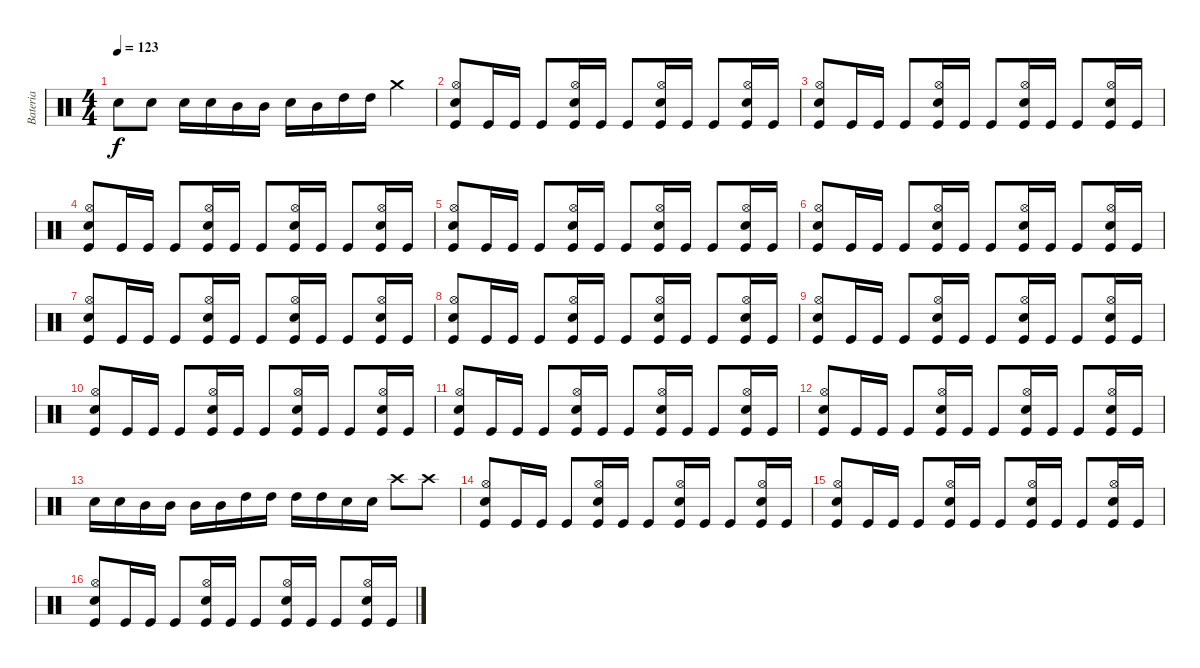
\track ("Bateria" "Bateria") {instrument percussion}
\staff {score}
\articulation defaults
\ts (4 4)
\tempo 123
\clef neutral
\ks c "Snare (hit) 2".8{dy f} "Snare (hit) 2".8 "Snare (hit) 2".16 "Snare (hit) 2".16 "Mid Tom (hit)".16 "Mid Tom (hit)".16 "Snare (hit) 2".16 "Mid Tom (hit)".16 "High Tom (hit)".16 "High Tom (hit)".16 "Crash medium (hit)".4
|
("Hi-Hat (open)" "Snare (hit) 2" "Kick (hit)").8 "Kick (hit)".16 "Kick (hit)".16 "Kick (hit)".8 ("Hi-Hat (open)" "Snare (hit) 2" "Kick (hit)").16 "Kick (hit)".16 "Kick (hit)".8 ("Hi-Hat (open)" "Snare (hit) 2" "Kick (hit)").16 "Kick (hit)".16 "Kick (hit)".8 ("Hi-Hat (open)" "Snare (hit) 2" "Kick (hit)").16 "Kick (hit)".16 |
("Hi-Hat (open)" "Snare (hit) 2" "Kick (hit)").8 "Kick (hit)".16 "Kick (hit)".16 "Kick (hit)".8 ("Hi-Hat (open)" "Snare (hit) 2" "Kick (hit)").16 "Kick (hit)".16 "Kick (hit)".8 ("Hi-Hat (open)" "Snare (hit) 2" "Kick (hit)").16 "Kick (hit)".16 "Kick (hit)".8 ("Hi-Hat (open)" "Snare (hit) 2" "Kick (hit)").16 "Kick (hit)".16 |
("Hi-Hat (open)" "Snare (hit) 2" "Kick (hit)").8 "Kick (hit)".16 "Kick (hit)".16 "Kick (hit)".8 ("Hi-Hat (open)" "Snare (hit) 2" "Kick (hit)").16 "Kick (hit)".16 "Kick (hit)".8 ("Hi-Hat (open)" "Snare (hit) 2" "Kick (hit)").16 "Kick (hit)".16 "Kick (hit)".8 ("Hi-Hat (open)" "Snare (hit) 2" "Kick (hit)").16 "Kick (hit)".16 |
("Hi-Hat (open)" "Snare (hit) 2" "Kick (hit)").8 "Kick (hit)".16 "Kick (hit)".16 "Kick (hit)".8 ("Hi-Hat (open)" "Snare (hit) 2" "Kick (hit)").16 "Kick (hit)".16 "Kick (hit)".8 ("Hi-Hat (open)" "Snare (hit) 2" "Kick (hit)").16 "Kick (hit)".16 "Kick (hit)".8 ("Hi-Hat (open)" "Snare (hit) 2" "Kick (hit)").16 "Kick (hit)".16 |
("Hi-Hat (open)" "Snare (hit) 2" "Kick (hit)").8 "Kick (hit)".16 "Kick (hit)".16 "Kick (hit)".8 ("Hi-Hat (open)" "Snare (hit) 2" "Kick (hit)").16 "Kick (hit)".16 "Kick (hit)".8 ("Hi-Hat (open)" "Snare (hit) 2" "Kick (hit)").16 "Kick (hit)".16 "Kick (hit)".8 ("Hi-Hat (open)" "Snare (hit) 2" "Kick (hit)").16 "Kick (hit)".16 |
("Hi-Hat (open)" "Snare (hit) 2" "Kick (hit)").8 "Kick (hit)".16 "Kick (hit)".16 "Kick (hit)".8 ("Hi-Hat (open)" "Snare (hit) 2" "Kick (hit)").16 "Kick (hit)".16 "Kick (hit)".8 ("Hi-Hat (open)" "Snare (hit) 2" "Kick (hit)").16 "Kick (hit)".16 "Kick (hit)".8 ("Hi-Hat (open)" "Snare (hit) 2" "Kick (hit)").16 "Kick (hit)".16 |
("Hi-Hat (open)" "Snare (hit) 2" "Kick (hit)").8 "Kick (hit)".16 "Kick (hit)".16 "Kick (hit)".8 ("Hi-Hat (open)" "Snare (hit) 2" "Kick (hit)").16 "Kick (hit)".16 "Kick (hit)".8 ("Hi-Hat (open)" "Snare (hit) 2" "Kick (hit)").16 "Kick (hit)".16 "Kick (hit)".8 ("Hi-Hat (open)" "Snare (hit) 2" "Kick (hit)").16 "Kick (hit)".16 |
("Hi-Hat (open)" "Snare (hit) 2" "Kick (hit)").8 "Kick (hit)".16 "Kick (hit)".16 "Kick (hit)".8 ("Hi-Hat (open)" "Snare (hit) 2" "Kick (hit)").16 "Kick (hit)".16 "Kick (hit)".8 ("Hi-Hat (open)" "Snare (hit) 2" "Kick (hit)").16 "Kick (hit)".16 "Kick (hit)".8 ("Hi-Hat (open)" "Snare (hit) 2" "Kick (hit)").16 "Kick (hit)".16 |
("Hi-Hat (open)" "Snare (hit) 2" "Kick (hit)").8 "Kick (hit)".16 "Kick (hit)".16 "Kick (hit)".8 ("Hi-Hat (open)" "Snare (hit) 2" "Kick (hit)").16 "Kick (hit)".16 "Kick (hit)".8 ("Hi-Hat (open)" "Snare (hit) 2" "Kick (hit)").16 "Kick (hit)".16 "Kick (hit)".8 ("Hi-Hat (open)" "Snare (hit) 2" "Kick (hit)").16 "Kick (hit)".16 |
("Hi-Hat (open)" "Snare (hit) 2" "Kick (hit)").8 "Kick (hit)".16 "Kick (hit)".16 "Kick (hit)".8 ("Hi-Hat (open)" "Snare (hit) 2" "Kick (hit)").16 "Kick (hit)".16 "Kick (hit)".8 ("Hi-Hat (open)" "Snare (hit) 2" "Kick (hit)").16 "Kick (hit)".16 "Kick (hit)".8 ("Hi-Hat (open)" "Snare (hit) 2" "Kick (hit)").16 "Kick (hit)".16 |
("Hi-Hat (open)" "Snare (hit) 2" "Kick (hit)").8 "Kick (hit)".16 "Kick (hit)".16 "Kick (hit)".8 ("Hi-Hat (open)" "Snare (hit) 2" "Kick (hit)").16 "Kick (hit)".16 "Kick (hit)".8 ("Hi-Hat (open)" "Snare (hit) 2" "Kick (hit)").16 "Kick (hit)".16 "Kick (hit)".8 ("Hi-Hat (open)" "Snare (hit) 2" "Kick (hit)").16 "Kick (hit)".16 |
"Snare (hit) 2".16 "Snare (hit) 2".16 "Mid Tom (hit)".16 "Mid Tom (hit)".16 "Mid Tom (hit)".16 "Mid Tom (hit)".16 "High Tom (hit)".16 "High Tom (hit)".16 "High Tom (hit)".16 "High Tom (hit)".16 "Snare (hit) 2".16 "Snare (hit) 2".16 "Crash high (hit)".8 "Crash high (hit)".8 |
("Hi-Hat (open)" "Snare (hit) 2" "Kick (hit)").8 "Kick (hit)".16 "Kick (hit)".16 "Kick (hit)".8 ("Hi-Hat (open)" "Snare (hit) 2" "Kick (hit)").16 "Kick (hit)".16 "Kick (hit)".8 ("Hi-Hat (open)" "Snare (hit) 2" "Kick (hit)").16 "Kick (hit)".16 "Kick (hit)".8 ("Hi-Hat (open)" "Snare (hit) 2" "Kick (hit)").16 "Kick (hit)".16 |
("Hi-Hat (open)" "Snare (hit) 2" "Kick (hit)").8 "Kick (hit)".16 "Kick (hit)".16 "Kick (hit)".8 ("Hi-Hat (open)" "Snare (hit) 2" "Kick (hit)").16 "Kick (hit)".16 "Kick (hit)".8 ("Hi-Hat (open)" "Snare (hit) 2" "Kick (hit)").16 "Kick (hit)".16 "Kick (hit)".8 ("Hi-Hat (open)" "Snare (hit) 2" "Kick (hit)").16 "Kick (hit)".16 |
("Hi-Hat (open)" "Snare (hit) 2" "Kick (hit)").8 "Kick (hit)".16 "Kick (hit)".16 "Kick (hit)".8 ("Hi-Hat (open)" "Snare (hit) 2" "Kick (hit)").16 "Kick (hit)".16 "Kick (hit)".8 ("Hi-Hat (open)" "Snare (hit) 2" "Kick (hit)").16 "Kick (hit)".16 "Kick (hit)".8 ("Hi-Hat (open)" "Snare (hit) 2" "Kick (hit)").16 "Kick (hit)".16
